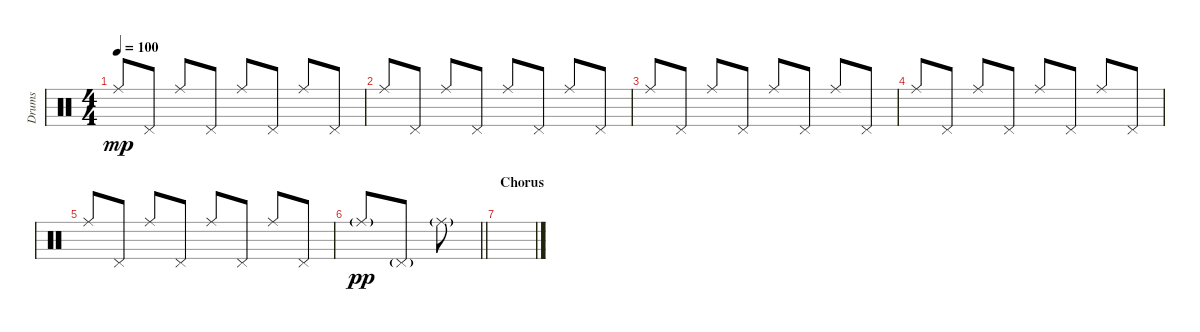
\track ("Drums" "Drums") {instrument percussion}
\staff {score}
\articulation defaults
\ts (4 4)
\tempo 100
\clef neutral
\ks c "Ride (middle)".8{dy mp} "Pedal Hi-Hat (hit)".8 "Ride (middle)".8 "Pedal Hi-Hat (hit)".8 "Ride (middle)".8 "Pedal Hi-Hat (hit)".8 "Ride (middle)".8 "Pedal Hi-Hat (hit)".8
|
"Ride (middle)".8 "Pedal Hi-Hat (hit)".8 "Ride (middle)".8 "Pedal Hi-Hat (hit)".8 "Ride (middle)".8 "Pedal Hi-Hat (hit)".8 "Ride (middle)".8 "Pedal Hi-Hat (hit)".8 |
"Ride (middle)".8 "Pedal Hi-Hat (hit)".8 "Ride (middle)".8 "Pedal Hi-Hat (hit)".8 "Ride (middle)".8 "Pedal Hi-Hat (hit)".8 "Ride (middle)".8 "Pedal Hi-Hat (hit)".8 |
"Ride (middle)".8 "Pedal Hi-Hat (hit)".8 "Ride (middle)".8 "Pedal Hi-Hat (hit)".8 "Ride (middle)".8 "Pedal Hi-Hat (hit)".8 "Ride (middle)".8 "Pedal Hi-Hat (hit)".8 |
"Ride (middle)".8 "Pedal Hi-Hat (hit)".8 "Ride (middle)".8 "Pedal Hi-Hat (hit)".8 "Ride (middle)".8 "Pedal Hi-Hat (hit)".8 "Ride (middle)".8 "Pedal Hi-Hat (hit)".8 |
\barLineRight lightlight "Ride (middle)"{g}.8{dy pp} "Pedal Hi-Hat (hit)"{g}.8 "Ride (middle)"{g}.8
|
\section ("" "Chorus")
